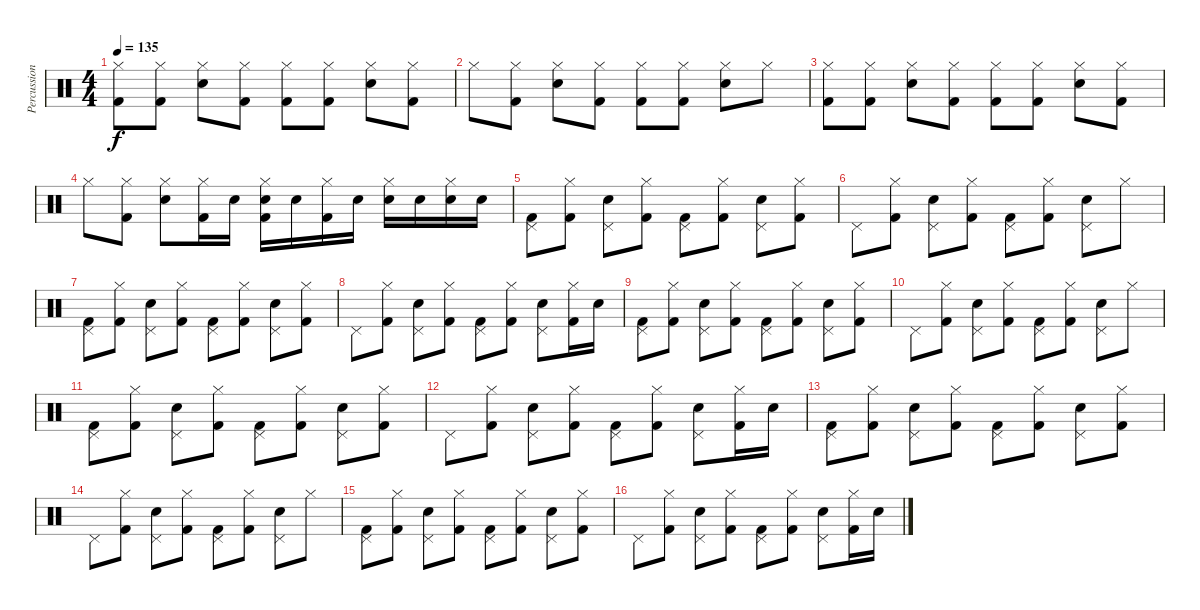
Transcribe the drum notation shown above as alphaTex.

\track ("Percussions" "Percussion") {instrument percussion}
\staff {score}
\articulation defaults
\ts (4 4)
\tempo 135
\clef neutral
\ks c
("Hi-Hat (closed)" "Kick (hit) 2").8{dy f} ("Hi-Hat (closed)" "Kick (hit) 2").8 ("Hi-Hat (closed)" "Electric Snare (hit)").8 ("Hi-Hat (closed)" "Kick (hit) 2").8 ("Hi-Hat (closed)" "Kick (hit) 2").8 ("Hi-Hat (closed)" "Kick (hit) 2").8 ("Hi-Hat (closed)" "Electric Snare (hit)").8 ("Hi-Hat (closed)" "Kick (hit) 2").8 |
"Hi-Hat (closed)".8 ("Hi-Hat (closed)" "Kick (hit) 2").8 ("Hi-Hat (closed)" "Electric Snare (hit)").8 ("Hi-Hat (closed)" "Kick (hit) 2").8 ("Hi-Hat (closed)" "Kick (hit) 2").8 ("Hi-Hat (closed)" "Kick (hit) 2").8 ("Hi-Hat (closed)" "Electric Snare (hit)").8 "Hi-Hat (closed)".8 |
("Hi-Hat (closed)" "Kick (hit) 2").8 ("Hi-Hat (closed)" "Kick (hit) 2").8 ("Hi-Hat (closed)" "Electric Snare (hit)").8 ("Hi-Hat (closed)" "Kick (hit) 2").8 ("Hi-Hat (closed)" "Kick (hit) 2").8 ("Hi-Hat (closed)" "Kick (hit) 2").8 ("Hi-Hat (closed)" "Electric Snare (hit)").8 ("Hi-Hat (closed)" "Kick (hit) 2").8 |
"Hi-Hat (closed)".8 ("Hi-Hat (closed)" "Kick (hit) 2").8 ("Hi-Hat (closed)" "Electric Snare (hit)").8 ("Hi-Hat (closed)" "Kick (hit) 2").16 "Electric Snare (hit)".16 ("Hi-Hat (closed)" "Electric Snare (hit)" "Kick (hit) 2").16 "Electric Snare (hit)".16 ("Hi-Hat (closed)" "Kick (hit) 2").16 "Electric Snare (hit)".16 ("Hi-Hat (closed)" "Electric Snare (hit)").16 "Electric Snare (hit)".16 ("Hi-Hat (closed)" "Electric Snare (hit)").16 "Electric Snare (hit)".16 |
("Pedal Hi-Hat (hit)" "Kick (hit) 2").8 ("Hi-Hat (closed)" "Kick (hit) 2").8 ("Pedal Hi-Hat (hit)" "Electric Snare (hit)").8 ("Hi-Hat (closed)" "Kick (hit) 2").8 ("Pedal Hi-Hat (hit)" "Kick (hit) 2").8 ("Hi-Hat (closed)" "Kick (hit) 2").8 ("Pedal Hi-Hat (hit)" "Electric Snare (hit)").8 ("Hi-Hat (closed)" "Kick (hit) 2").8 |
"Pedal Hi-Hat (hit)".8 ("Hi-Hat (closed)" "Kick (hit) 2").8 ("Pedal Hi-Hat (hit)" "Electric Snare (hit)").8 ("Hi-Hat (closed)" "Kick (hit) 2").8 ("Pedal Hi-Hat (hit)" "Kick (hit) 2").8 ("Hi-Hat (closed)" "Kick (hit) 2").8 ("Pedal Hi-Hat (hit)" "Electric Snare (hit)").8 "Hi-Hat (closed)".8 |
("Pedal Hi-Hat (hit)" "Kick (hit) 2").8 ("Hi-Hat (closed)" "Kick (hit) 2").8 ("Pedal Hi-Hat (hit)" "Electric Snare (hit)").8 ("Hi-Hat (closed)" "Kick (hit) 2").8 ("Pedal Hi-Hat (hit)" "Kick (hit) 2").8 ("Hi-Hat (closed)" "Kick (hit) 2").8 ("Pedal Hi-Hat (hit)" "Electric Snare (hit)").8 ("Hi-Hat (closed)" "Kick (hit) 2").8 |
"Pedal Hi-Hat (hit)".8 ("Hi-Hat (closed)" "Kick (hit) 2").8 ("Pedal Hi-Hat (hit)" "Electric Snare (hit)").8 ("Hi-Hat (closed)" "Kick (hit) 2").8 ("Pedal Hi-Hat (hit)" "Kick (hit) 2").8 ("Hi-Hat (closed)" "Kick (hit) 2").8 ("Pedal Hi-Hat (hit)" "Electric Snare (hit)").8 ("Hi-Hat (closed)" "Kick (hit) 2").16 "Electric Snare (hit)".16 |
("Pedal Hi-Hat (hit)" "Kick (hit) 2").8 ("Hi-Hat (closed)" "Kick (hit) 2").8 ("Pedal Hi-Hat (hit)" "Electric Snare (hit)").8 ("Hi-Hat (closed)" "Kick (hit) 2").8 ("Pedal Hi-Hat (hit)" "Kick (hit) 2").8 ("Hi-Hat (closed)" "Kick (hit) 2").8 ("Pedal Hi-Hat (hit)" "Electric Snare (hit)").8 ("Hi-Hat (closed)" "Kick (hit) 2").8 |
"Pedal Hi-Hat (hit)".8 ("Hi-Hat (closed)" "Kick (hit) 2").8 ("Pedal Hi-Hat (hit)" "Electric Snare (hit)").8 ("Hi-Hat (closed)" "Kick (hit) 2").8 ("Pedal Hi-Hat (hit)" "Kick (hit) 2").8 ("Hi-Hat (closed)" "Kick (hit) 2").8 ("Pedal Hi-Hat (hit)" "Electric Snare (hit)").8 "Hi-Hat (closed)".8 |
("Pedal Hi-Hat (hit)" "Kick (hit) 2").8 ("Hi-Hat (closed)" "Kick (hit) 2").8 ("Pedal Hi-Hat (hit)" "Electric Snare (hit)").8 ("Hi-Hat (closed)" "Kick (hit) 2").8 ("Pedal Hi-Hat (hit)" "Kick (hit) 2").8 ("Hi-Hat (closed)" "Kick (hit) 2").8 ("Pedal Hi-Hat (hit)" "Electric Snare (hit)").8 ("Hi-Hat (closed)" "Kick (hit) 2").8 |
"Pedal Hi-Hat (hit)".8 ("Hi-Hat (closed)" "Kick (hit) 2").8 ("Pedal Hi-Hat (hit)" "Electric Snare (hit)").8 ("Hi-Hat (closed)" "Kick (hit) 2").8 ("Pedal Hi-Hat (hit)" "Kick (hit) 2").8 ("Hi-Hat (closed)" "Kick (hit) 2").8 ("Pedal Hi-Hat (hit)" "Electric Snare (hit)").8 ("Hi-Hat (closed)" "Kick (hit) 2").16 "Electric Snare (hit)".16 |
("Pedal Hi-Hat (hit)" "Kick (hit) 2").8 ("Hi-Hat (closed)" "Kick (hit) 2").8 ("Pedal Hi-Hat (hit)" "Electric Snare (hit)").8 ("Hi-Hat (closed)" "Kick (hit) 2").8 ("Pedal Hi-Hat (hit)" "Kick (hit) 2").8 ("Hi-Hat (closed)" "Kick (hit) 2").8 ("Pedal Hi-Hat (hit)" "Electric Snare (hit)").8 ("Hi-Hat (closed)" "Kick (hit) 2").8 |
"Pedal Hi-Hat (hit)".8 ("Hi-Hat (closed)" "Kick (hit) 2").8 ("Pedal Hi-Hat (hit)" "Electric Snare (hit)").8 ("Hi-Hat (closed)" "Kick (hit) 2").8 ("Pedal Hi-Hat (hit)" "Kick (hit) 2").8 ("Hi-Hat (closed)" "Kick (hit) 2").8 ("Pedal Hi-Hat (hit)" "Electric Snare (hit)").8 "Hi-Hat (closed)".8 |
("Pedal Hi-Hat (hit)" "Kick (hit) 2").8 ("Hi-Hat (closed)" "Kick (hit) 2").8 ("Pedal Hi-Hat (hit)" "Electric Snare (hit)").8 ("Hi-Hat (closed)" "Kick (hit) 2").8 ("Pedal Hi-Hat (hit)" "Kick (hit) 2").8 ("Hi-Hat (closed)" "Kick (hit) 2").8 ("Pedal Hi-Hat (hit)" "Electric Snare (hit)").8 ("Hi-Hat (closed)" "Kick (hit) 2").8 |
"Pedal Hi-Hat (hit)".8 ("Hi-Hat (closed)" "Kick (hit) 2").8 ("Pedal Hi-Hat (hit)" "Electric Snare (hit)").8 ("Hi-Hat (closed)" "Kick (hit) 2").8 ("Pedal Hi-Hat (hit)" "Kick (hit) 2").8 ("Hi-Hat (closed)" "Kick (hit) 2").8 ("Pedal Hi-Hat (hit)" "Electric Snare (hit)").8 ("Hi-Hat (closed)" "Kick (hit) 2").16 "Electric Snare (hit)".16
